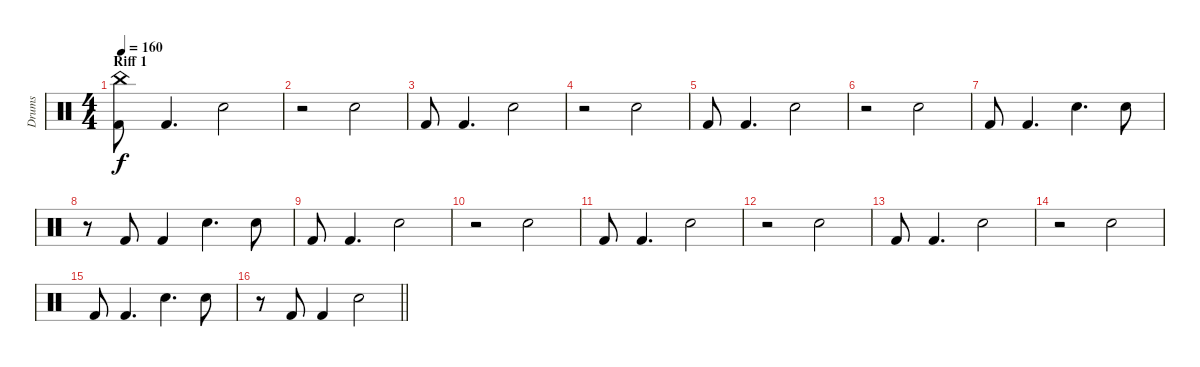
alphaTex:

\track ("Drums" "Drums") {instrument percussion}
\staff {score}
\articulation defaults
\ts (4 4)
\section ("" "Riff 1")
\tempo 160
\clef neutral
\ks c
("Kick (hit) 2" "China (hit)").8{dy f} "Kick (hit) 2".4{d} "Snare (hit) 2".2 |
r.2 "Snare (hit) 2".2 |
"Kick (hit) 2".8 "Kick (hit) 2".4{d} "Snare (hit) 2".2 |
r.2 "Snare (hit) 2".2 |
"Kick (hit) 2".8 "Kick (hit) 2".4{d} "Snare (hit) 2".2 |
r.2 "Snare (hit) 2".2 |
"Kick (hit) 2".8 "Kick (hit) 2".4{d} "Snare (hit) 2".4{d} "Snare (hit) 2".8 |
r.8 "Kick (hit) 2".8 "Kick (hit) 2".4 "Snare (hit) 2".4{d} "Snare (hit) 2".8 |
"Kick (hit) 2".8 "Kick (hit) 2".4{d} "Snare (hit) 2".2 |
r.2 "Snare (hit) 2".2 |
"Kick (hit) 2".8 "Kick (hit) 2".4{d} "Snare (hit) 2".2 |
r.2 "Snare (hit) 2".2 |
"Kick (hit) 2".8 "Kick (hit) 2".4{d} "Snare (hit) 2".2 |
r.2 "Snare (hit) 2".2 |
"Kick (hit) 2".8 "Kick (hit) 2".4{d} "Snare (hit) 2".4{d} "Snare (hit) 2".8 |
\barLineRight lightlight
r.8 "Kick (hit) 2".8 "Kick (hit) 2".4 "Snare (hit) 2".2
